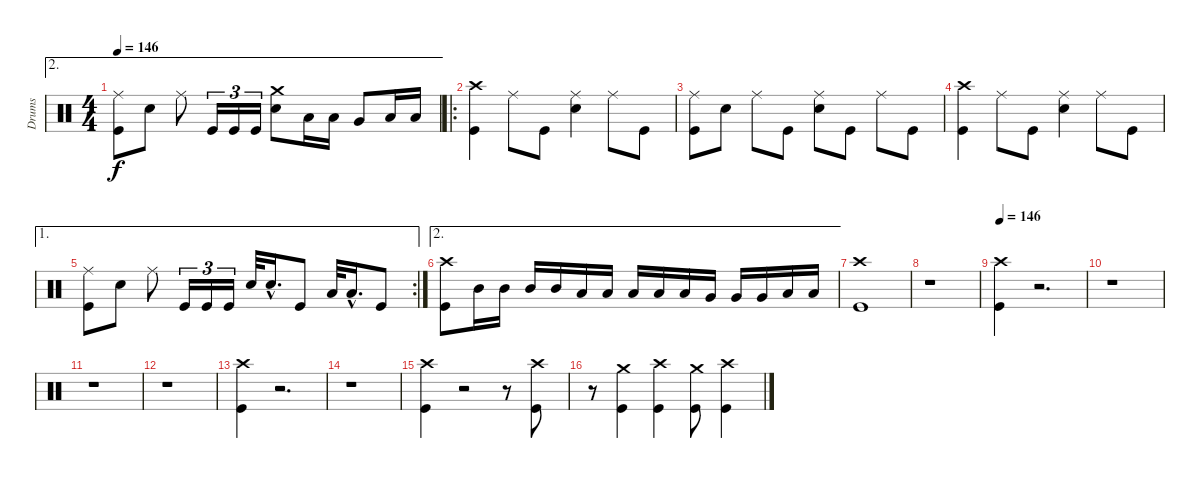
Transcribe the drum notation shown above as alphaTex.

\track ("Drums" "Drums") {instrument percussion}
\staff {score}
\articulation defaults
\ae 2
\ts (4 4)
\tempo 146
\clef neutral
\ks c
("Ride (middle)" "Kick (hit)").8{dy f} "Electric Snare (hit)".8 "Ride (middle)".8 "Kick (hit)".16{tu (3 2)} "Kick (hit)".16{tu (3 2)} "Kick (hit)".16{tu (3 2)} ("Crash medium (hit)" "Electric Snare (hit)").8 "Low Tom (hit)".16 "Low Tom (hit)".16 "Very Low Tom (hit)".8 "Low Floor Tom (hit)".16 "Low Floor Tom (hit)".16 |
\ro
("Crash high (hit)" "Kick (hit)").4 "Ride (middle)".8 "Kick (hit)".8 ("Ride (middle)" "Electric Snare (hit)").4 "Ride (middle)".8 "Kick (hit)".8 |
("Ride (middle)" "Kick (hit)").8 "Electric Snare (hit)".8 "Ride (middle)".8 "Kick (hit)".8 ("Ride (middle)" "Electric Snare (hit)").8 "Kick (hit)".8 "Ride (middle)".8 "Kick (hit)".8 |
("Crash high (hit)" "Kick (hit)").4 "Ride (middle)".8 "Kick (hit)".8 ("Ride (middle)" "Electric Snare (hit)").4 "Ride (middle)".8 "Kick (hit)".8 |
\ae 1
\rc 2
("Ride (middle)" "Kick (hit)").8 "Electric Snare (hit)".8 "Ride (middle)".8 "Kick (hit)".16{tu (3 2)} "Kick (hit)".16{tu (3 2)} "Kick (hit)".16{tu (3 2)} "Electric Snare (hit)".32 "Electric Snare (hit)"{hac}.16{d} "Kick (hit)".8 "Low Floor Tom (hit)".32 "Low Floor Tom (hit)"{hac}.16{d} "Kick (hit)".8 |
\ae 2
("Crash high (hit)" "Kick (hit)").8 "Mid Tom (hit)".16 "Mid Tom (hit)".16 "Mid Tom (hit)".16 "Mid Tom (hit)".16 "Low Tom (hit)".16 "Low Tom (hit)".16 "Low Tom (hit)".16 "Low Tom (hit)".16 "Low Tom (hit)".16 "Very Low Tom (hit)".16 "Very Low Tom (hit)".16 "Very Low Tom (hit)".16 "Low Floor Tom (hit)".16 "Low Floor Tom (hit)".16 |
("Crash high (hit)" "Kick (hit)").1 |
r.1 |
\tempo 146
("Crash high (hit)" "Kick (hit)").4 r.2{d volume 0} |
r.1 |
r.1 |
r.1 |
("Crash high (hit)" "Kick (hit)").4{volume 16} r.2{d volume 0} |
r.1 |
("Crash high (hit)" "Kick (hit)").4{volume 16} r.2{volume 0} r.8 ("Crash high (hit)" "Kick (hit)").8{volume 16} |
r.8 ("Crash medium (hit)" "Kick (hit)").4 ("Crash high (hit)" "Kick (hit)").4 ("Crash medium (hit)" "Kick (hit)").8 ("Crash high (hit)" "Kick (hit)").4
